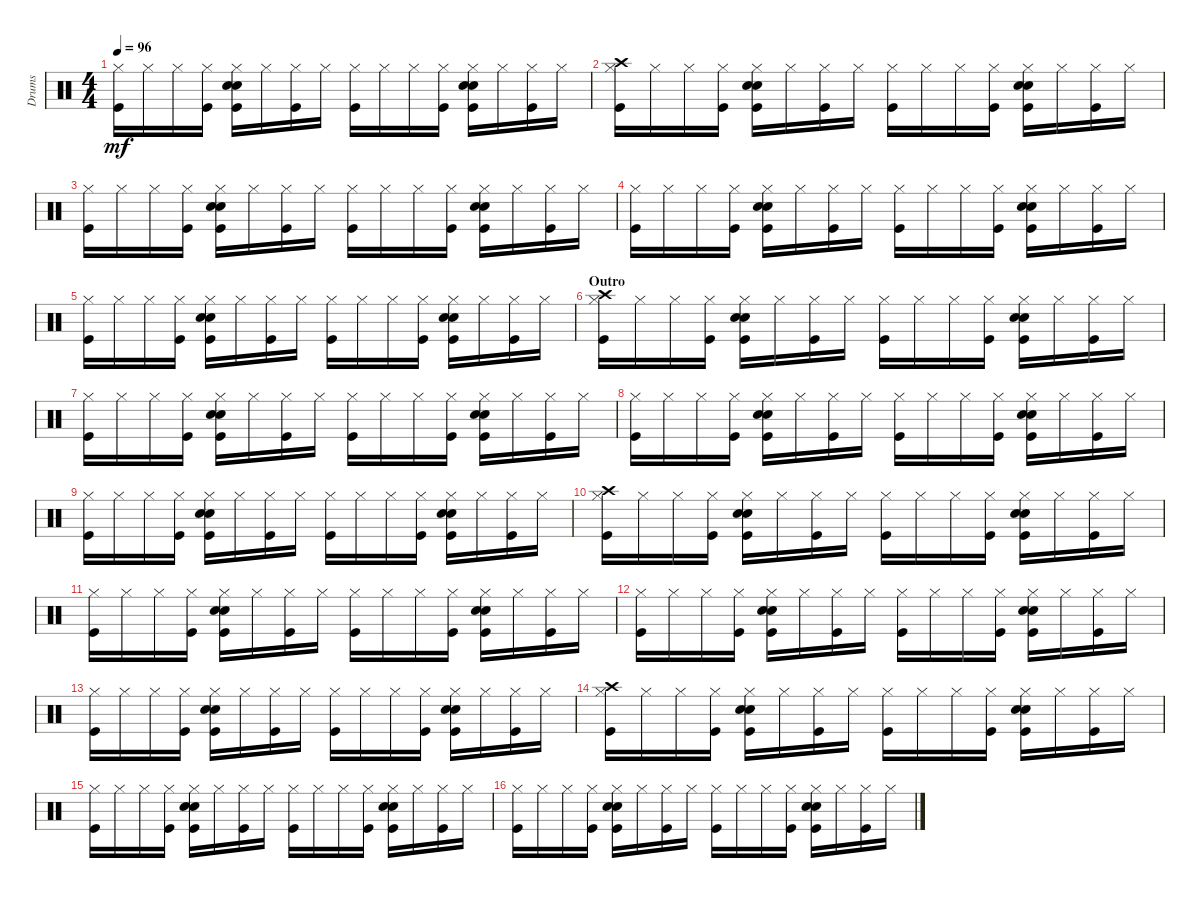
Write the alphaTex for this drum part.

\track ("Drums" "Drums") {instrument percussion}
\staff {score}
\articulation defaults
\ts (4 4)
\tempo 96
\clef neutral
\ks aminor
("Kick (hit)" "Hi-Hat (closed)").16{dy mf} "Hi-Hat (closed)".16 "Hi-Hat (closed)".16 ("Kick (hit)" "Hi-Hat (closed)").16 ("Kick (hit)" "Hand Clap (hit)" "Electric Snare (hit)" "Hi-Hat (closed)").16 "Hi-Hat (closed)".16 ("Kick (hit)" "Hi-Hat (closed)").16 "Hi-Hat (closed)".16 ("Kick (hit)" "Hi-Hat (closed)").16 "Hi-Hat (closed)".16 "Hi-Hat (closed)".16 ("Kick (hit)" "Hi-Hat (closed)").16 ("Kick (hit)" "Hand Clap (hit)" "Electric Snare (hit)" "Hi-Hat (closed)").16 "Hi-Hat (closed)".16 ("Kick (hit)" "Hi-Hat (closed)").16 "Hi-Hat (closed)".16 |
("Kick (hit)" "Hi-Hat (closed)" "Crash high (hit)").16 "Hi-Hat (closed)".16 "Hi-Hat (closed)".16 ("Kick (hit)" "Hi-Hat (closed)").16 ("Kick (hit)" "Hand Clap (hit)" "Electric Snare (hit)" "Hi-Hat (closed)").16 "Hi-Hat (closed)".16 ("Kick (hit)" "Hi-Hat (closed)").16 "Hi-Hat (closed)".16 ("Kick (hit)" "Hi-Hat (closed)").16 "Hi-Hat (closed)".16 "Hi-Hat (closed)".16 ("Kick (hit)" "Hi-Hat (closed)").16 ("Kick (hit)" "Hand Clap (hit)" "Electric Snare (hit)" "Hi-Hat (closed)").16 "Hi-Hat (closed)".16 ("Kick (hit)" "Hi-Hat (closed)").16 "Hi-Hat (closed)".16 |
("Kick (hit)" "Hi-Hat (closed)").16 "Hi-Hat (closed)".16 "Hi-Hat (closed)".16 ("Kick (hit)" "Hi-Hat (closed)").16 ("Kick (hit)" "Hand Clap (hit)" "Electric Snare (hit)" "Hi-Hat (closed)").16 "Hi-Hat (closed)".16 ("Kick (hit)" "Hi-Hat (closed)").16 "Hi-Hat (closed)".16 ("Kick (hit)" "Hi-Hat (closed)").16 "Hi-Hat (closed)".16 "Hi-Hat (closed)".16 ("Kick (hit)" "Hi-Hat (closed)").16 ("Kick (hit)" "Hand Clap (hit)" "Electric Snare (hit)" "Hi-Hat (closed)").16 "Hi-Hat (closed)".16 ("Kick (hit)" "Hi-Hat (closed)").16 "Hi-Hat (closed)".16 |
("Kick (hit)" "Hi-Hat (closed)").16 "Hi-Hat (closed)".16 "Hi-Hat (closed)".16 ("Kick (hit)" "Hi-Hat (closed)").16 ("Kick (hit)" "Hand Clap (hit)" "Electric Snare (hit)" "Hi-Hat (closed)").16 "Hi-Hat (closed)".16 ("Kick (hit)" "Hi-Hat (closed)").16 "Hi-Hat (closed)".16 ("Kick (hit)" "Hi-Hat (closed)").16 "Hi-Hat (closed)".16 "Hi-Hat (closed)".16 ("Kick (hit)" "Hi-Hat (closed)").16 ("Kick (hit)" "Hand Clap (hit)" "Electric Snare (hit)" "Hi-Hat (closed)").16 "Hi-Hat (closed)".16 ("Kick (hit)" "Hi-Hat (closed)").16 "Hi-Hat (closed)".16 |
("Kick (hit)" "Hi-Hat (closed)").16 "Hi-Hat (closed)".16 "Hi-Hat (closed)".16 ("Kick (hit)" "Hi-Hat (closed)").16 ("Kick (hit)" "Hand Clap (hit)" "Electric Snare (hit)" "Hi-Hat (closed)").16 "Hi-Hat (closed)".16 ("Kick (hit)" "Hi-Hat (closed)").16 "Hi-Hat (closed)".16 ("Kick (hit)" "Hi-Hat (closed)").16 "Hi-Hat (closed)".16 "Hi-Hat (closed)".16 ("Kick (hit)" "Hi-Hat (closed)").16 ("Kick (hit)" "Hand Clap (hit)" "Electric Snare (hit)" "Hi-Hat (closed)").16 "Hi-Hat (closed)".16 ("Kick (hit)" "Hi-Hat (closed)").16 "Hi-Hat (closed)".16 |
\section ("" "Outro")
("Kick (hit)" "Hi-Hat (closed)" "Crash high (hit)").16 "Hi-Hat (closed)".16 "Hi-Hat (closed)".16 ("Kick (hit)" "Hi-Hat (closed)").16 ("Kick (hit)" "Hand Clap (hit)" "Electric Snare (hit)" "Hi-Hat (closed)").16 "Hi-Hat (closed)".16 ("Kick (hit)" "Hi-Hat (closed)").16 "Hi-Hat (closed)".16 ("Kick (hit)" "Hi-Hat (closed)").16 "Hi-Hat (closed)".16 "Hi-Hat (closed)".16 ("Kick (hit)" "Hi-Hat (closed)").16 ("Kick (hit)" "Hand Clap (hit)" "Electric Snare (hit)" "Hi-Hat (closed)").16 "Hi-Hat (closed)".16 ("Kick (hit)" "Hi-Hat (closed)").16 "Hi-Hat (closed)".16 |
("Kick (hit)" "Hi-Hat (closed)").16 "Hi-Hat (closed)".16 "Hi-Hat (closed)".16 ("Kick (hit)" "Hi-Hat (closed)").16 ("Kick (hit)" "Hand Clap (hit)" "Electric Snare (hit)" "Hi-Hat (closed)").16 "Hi-Hat (closed)".16 ("Kick (hit)" "Hi-Hat (closed)").16 "Hi-Hat (closed)".16 ("Kick (hit)" "Hi-Hat (closed)").16 "Hi-Hat (closed)".16 "Hi-Hat (closed)".16 ("Kick (hit)" "Hi-Hat (closed)").16 ("Kick (hit)" "Hand Clap (hit)" "Electric Snare (hit)" "Hi-Hat (closed)").16 "Hi-Hat (closed)".16 ("Kick (hit)" "Hi-Hat (closed)").16 "Hi-Hat (closed)".16 |
("Kick (hit)" "Hi-Hat (closed)").16 "Hi-Hat (closed)".16 "Hi-Hat (closed)".16 ("Kick (hit)" "Hi-Hat (closed)").16 ("Kick (hit)" "Hand Clap (hit)" "Electric Snare (hit)" "Hi-Hat (closed)").16 "Hi-Hat (closed)".16 ("Kick (hit)" "Hi-Hat (closed)").16 "Hi-Hat (closed)".16 ("Kick (hit)" "Hi-Hat (closed)").16 "Hi-Hat (closed)".16 "Hi-Hat (closed)".16 ("Kick (hit)" "Hi-Hat (closed)").16 ("Kick (hit)" "Hand Clap (hit)" "Electric Snare (hit)" "Hi-Hat (closed)").16 "Hi-Hat (closed)".16 ("Kick (hit)" "Hi-Hat (closed)").16 "Hi-Hat (closed)".16 |
("Kick (hit)" "Hi-Hat (closed)").16 "Hi-Hat (closed)".16 "Hi-Hat (closed)".16 ("Kick (hit)" "Hi-Hat (closed)").16 ("Kick (hit)" "Hand Clap (hit)" "Electric Snare (hit)" "Hi-Hat (closed)").16 "Hi-Hat (closed)".16 ("Kick (hit)" "Hi-Hat (closed)").16 "Hi-Hat (closed)".16 ("Kick (hit)" "Hi-Hat (closed)").16 "Hi-Hat (closed)".16 "Hi-Hat (closed)".16 ("Kick (hit)" "Hi-Hat (closed)").16 ("Kick (hit)" "Hand Clap (hit)" "Electric Snare (hit)" "Hi-Hat (closed)").16 "Hi-Hat (closed)".16 ("Kick (hit)" "Hi-Hat (closed)").16 "Hi-Hat (closed)".16 |
("Kick (hit)" "Hi-Hat (closed)" "Crash high (hit)").16 "Hi-Hat (closed)".16 "Hi-Hat (closed)".16 ("Kick (hit)" "Hi-Hat (closed)").16 ("Kick (hit)" "Hand Clap (hit)" "Electric Snare (hit)" "Hi-Hat (closed)").16 "Hi-Hat (closed)".16 ("Kick (hit)" "Hi-Hat (closed)").16 "Hi-Hat (closed)".16 ("Kick (hit)" "Hi-Hat (closed)").16 "Hi-Hat (closed)".16 "Hi-Hat (closed)".16 ("Kick (hit)" "Hi-Hat (closed)").16 ("Kick (hit)" "Hand Clap (hit)" "Electric Snare (hit)" "Hi-Hat (closed)").16 "Hi-Hat (closed)".16 ("Kick (hit)" "Hi-Hat (closed)").16 "Hi-Hat (closed)".16 |
("Kick (hit)" "Hi-Hat (closed)").16 "Hi-Hat (closed)".16 "Hi-Hat (closed)".16 ("Kick (hit)" "Hi-Hat (closed)").16 ("Kick (hit)" "Hand Clap (hit)" "Electric Snare (hit)" "Hi-Hat (closed)").16 "Hi-Hat (closed)".16 ("Kick (hit)" "Hi-Hat (closed)").16 "Hi-Hat (closed)".16 ("Kick (hit)" "Hi-Hat (closed)").16 "Hi-Hat (closed)".16 "Hi-Hat (closed)".16 ("Kick (hit)" "Hi-Hat (closed)").16 ("Kick (hit)" "Hand Clap (hit)" "Electric Snare (hit)" "Hi-Hat (closed)").16 "Hi-Hat (closed)".16 ("Kick (hit)" "Hi-Hat (closed)").16 "Hi-Hat (closed)".16 |
("Kick (hit)" "Hi-Hat (closed)").16 "Hi-Hat (closed)".16 "Hi-Hat (closed)".16 ("Kick (hit)" "Hi-Hat (closed)").16 ("Kick (hit)" "Hand Clap (hit)" "Electric Snare (hit)" "Hi-Hat (closed)").16 "Hi-Hat (closed)".16 ("Kick (hit)" "Hi-Hat (closed)").16 "Hi-Hat (closed)".16 ("Kick (hit)" "Hi-Hat (closed)").16 "Hi-Hat (closed)".16 "Hi-Hat (closed)".16 ("Kick (hit)" "Hi-Hat (closed)").16 ("Kick (hit)" "Hand Clap (hit)" "Electric Snare (hit)" "Hi-Hat (closed)").16 "Hi-Hat (closed)".16 ("Kick (hit)" "Hi-Hat (closed)").16 "Hi-Hat (closed)".16 |
("Kick (hit)" "Hi-Hat (closed)").16 "Hi-Hat (closed)".16 "Hi-Hat (closed)".16 ("Kick (hit)" "Hi-Hat (closed)").16 ("Kick (hit)" "Hand Clap (hit)" "Electric Snare (hit)" "Hi-Hat (closed)").16 "Hi-Hat (closed)".16 ("Kick (hit)" "Hi-Hat (closed)").16 "Hi-Hat (closed)".16 ("Kick (hit)" "Hi-Hat (closed)").16 "Hi-Hat (closed)".16 "Hi-Hat (closed)".16 ("Kick (hit)" "Hi-Hat (closed)").16 ("Kick (hit)" "Hand Clap (hit)" "Electric Snare (hit)" "Hi-Hat (closed)").16 "Hi-Hat (closed)".16 ("Kick (hit)" "Hi-Hat (closed)").16 "Hi-Hat (closed)".16 |
("Kick (hit)" "Hi-Hat (closed)" "Crash high (hit)").16 "Hi-Hat (closed)".16 "Hi-Hat (closed)".16 ("Kick (hit)" "Hi-Hat (closed)").16 ("Kick (hit)" "Hand Clap (hit)" "Electric Snare (hit)" "Hi-Hat (closed)").16 "Hi-Hat (closed)".16 ("Kick (hit)" "Hi-Hat (closed)").16 "Hi-Hat (closed)".16 ("Kick (hit)" "Hi-Hat (closed)").16 "Hi-Hat (closed)".16 "Hi-Hat (closed)".16 ("Kick (hit)" "Hi-Hat (closed)").16 ("Kick (hit)" "Hand Clap (hit)" "Electric Snare (hit)" "Hi-Hat (closed)").16 "Hi-Hat (closed)".16 ("Kick (hit)" "Hi-Hat (closed)").16 "Hi-Hat (closed)".16 |
("Kick (hit)" "Hi-Hat (closed)").16 "Hi-Hat (closed)".16 "Hi-Hat (closed)".16 ("Kick (hit)" "Hi-Hat (closed)").16 ("Kick (hit)" "Hand Clap (hit)" "Electric Snare (hit)" "Hi-Hat (closed)").16 "Hi-Hat (closed)".16 ("Kick (hit)" "Hi-Hat (closed)").16 "Hi-Hat (closed)".16 ("Kick (hit)" "Hi-Hat (closed)").16 "Hi-Hat (closed)".16 "Hi-Hat (closed)".16 ("Kick (hit)" "Hi-Hat (closed)").16 ("Kick (hit)" "Hand Clap (hit)" "Electric Snare (hit)" "Hi-Hat (closed)").16 "Hi-Hat (closed)".16 ("Kick (hit)" "Hi-Hat (closed)").16 "Hi-Hat (closed)".16 |
("Kick (hit)" "Hi-Hat (closed)").16 "Hi-Hat (closed)".16 "Hi-Hat (closed)".16 ("Kick (hit)" "Hi-Hat (closed)").16 ("Kick (hit)" "Hand Clap (hit)" "Electric Snare (hit)" "Hi-Hat (closed)").16 "Hi-Hat (closed)".16 ("Kick (hit)" "Hi-Hat (closed)").16 "Hi-Hat (closed)".16 ("Kick (hit)" "Hi-Hat (closed)").16 "Hi-Hat (closed)".16 "Hi-Hat (closed)".16 ("Kick (hit)" "Hi-Hat (closed)").16 ("Kick (hit)" "Hand Clap (hit)" "Electric Snare (hit)" "Hi-Hat (closed)").16 "Hi-Hat (closed)".16 ("Kick (hit)" "Hi-Hat (closed)").16 "Hi-Hat (closed)".16
